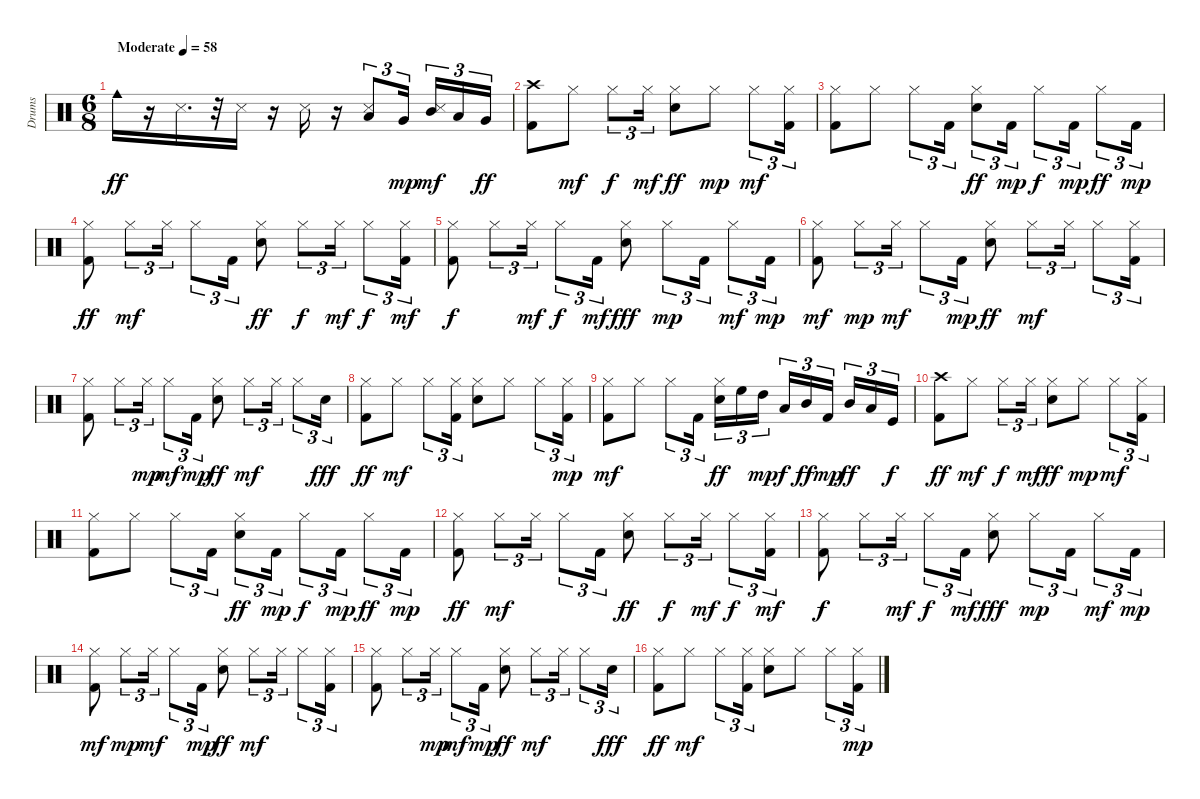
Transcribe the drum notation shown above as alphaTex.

\track ("Drums " "Drums ") {instrument percussion}
\staff {score}
\articulation defaults
\ts (6 8)
\tempo (58 "Moderate")
\clef neutral
\ks c "Cowbell medium (hit)".16{dy ff}
r.16 "Snare (side stick) 3".16{d} r.32 "Snare (side stick) 3".16 r.16 "Snare (side stick) 3".16 r.16 ("Snare (side stick) 3" "Low Floor Tom (hit)").8{tu (3 2)} "Very Low Tom (hit)".16{tu (3 2) dy mp} ("Snare (side stick) 3" "Mid Tom (hit)").16{tu (3 2) dy mf} "Low Tom (hit)".16{tu (3 2)} "Very Low Tom (hit)".16{tu (3 2) dy ff} |
("Kick (hit) 2" "Crash high (hit)").8 "Hi-Hat (closed)".8{dy mf} "Hi-Hat (closed)".8{tu (3 2) dy f} "Hi-Hat (closed)".16{tu (3 2) dy mf} ("Electric Snare (hit)" "Hi-Hat (closed)").8{dy ff} "Hi-Hat (closed)".8{dy mp} "Hi-Hat (closed)".8{tu (3 2) dy mf} ("Kick (hit) 2" "Hi-Hat (closed)").16{tu (3 2)} |
("Kick (hit) 2" "Hi-Hat (closed)").8 "Hi-Hat (closed)".8 "Hi-Hat (closed)".8{tu (3 2)} "Kick (hit) 2".16{tu (3 2)} ("Electric Snare (hit)" "Hi-Hat (closed)").8{tu (3 2) dy ff} "Kick (hit) 2".16{tu (3 2) dy mp} "Hi-Hat (closed)".8{tu (3 2) dy f} "Kick (hit) 2".16{tu (3 2) dy mp} "Hi-Hat (closed)".8{tu (3 2) dy ff} "Kick (hit) 2".16{tu (3 2) dy mp} |
("Kick (hit) 2" "Hi-Hat (closed)").8{dy ff} "Hi-Hat (closed)".8{tu (3 2) dy mf} "Hi-Hat (closed)".16{tu (3 2)} "Hi-Hat (closed)".8{tu (3 2)} "Kick (hit) 2".16{tu (3 2)} ("Electric Snare (hit)" "Hi-Hat (closed)").8{dy ff} "Hi-Hat (closed)".8{tu (3 2) dy f} "Hi-Hat (closed)".16{tu (3 2) dy mf} "Hi-Hat (closed)".8{tu (3 2) dy f} ("Kick (hit) 2" "Hi-Hat (closed)").16{tu (3 2) dy mf} |
("Kick (hit) 2" "Hi-Hat (closed)").8{dy f} "Hi-Hat (closed)".8{tu (3 2)} "Hi-Hat (closed)".16{tu (3 2) dy mf} "Hi-Hat (closed)".8{tu (3 2) dy f} "Kick (hit) 2".16{tu (3 2) dy mf} ("Electric Snare (hit)" "Hi-Hat (closed)").8{dy fff} "Hi-Hat (closed)".8{tu (3 2) dy mp} "Kick (hit) 2".16{tu (3 2)} "Hi-Hat (closed)".8{tu (3 2) dy mf} "Kick (hit) 2".16{tu (3 2) dy mp} |
("Kick (hit) 2" "Hi-Hat (closed)").8{dy mf} "Hi-Hat (closed)".8{tu (3 2) dy mp} "Hi-Hat (closed)".16{tu (3 2) dy mf} "Hi-Hat (closed)".8{tu (3 2)} "Kick (hit) 2".16{tu (3 2) dy mp} ("Electric Snare (hit)" "Hi-Hat (closed)").8{dy ff} "Hi-Hat (closed)".8{tu (3 2) dy mf} "Hi-Hat (closed)".16{tu (3 2)} "Hi-Hat (closed)".8{tu (3 2)} ("Kick (hit) 2" "Hi-Hat (closed)").16{tu (3 2)} |
("Kick (hit) 2" "Hi-Hat (closed)").8 "Hi-Hat (closed)".8{tu (3 2)} "Hi-Hat (closed)".16{tu (3 2) dy mp} "Hi-Hat (closed)".8{tu (3 2) dy mf} "Kick (hit) 2".16{tu (3 2) dy mp} ("Electric Snare (hit)" "Hi-Hat (closed)").8{dy ff} "Hi-Hat (closed)".8{tu (3 2) dy mf} "Hi-Hat (closed)".16{tu (3 2)} "Hi-Hat (closed)".8{tu (3 2)} "Electric Snare (hit)".16{tu (3 2) dy fff} |
("Kick (hit) 2" "Hi-Hat (closed)").8{dy ff} "Hi-Hat (closed)".8{dy mf} "Hi-Hat (closed)".8{tu (3 2)} ("Kick (hit) 2" "Hi-Hat (closed)").16{tu (3 2)} ("Electric Snare (hit)" "Hi-Hat (closed)").8 "Hi-Hat (closed)".8 "Hi-Hat (closed)".8{tu (3 2)} ("Kick (hit) 2" "Hi-Hat (closed)").16{tu (3 2) dy mp} |
("Kick (hit) 2" "Hi-Hat (closed)").8{dy mf} "Hi-Hat (closed)".8 "Hi-Hat (closed)".8{tu (3 2)} "Kick (hit) 2".16{tu (3 2)} ("Electric Snare (hit)" "Hi-Hat (closed)").16{tu (3 2) dy ff} "High Floor Tom (hit)".16{tu (3 2)} "High Tom (hit)".16{tu (3 2) dy mp} "Low Tom (hit)".16{tu (3 2) dy f} "Mid Tom (hit)".16{tu (3 2) dy ff} "Kick (hit) 2".16{tu (3 2) dy mp} "Mid Tom (hit)".16{tu (3 2) dy ff} "Low Tom (hit)".16{tu (3 2)} "Kick (hit)".16{tu (3 2) dy f} |
("Kick (hit) 2" "Crash high (hit)").8{dy ff} "Hi-Hat (closed)".8{dy mf} "Hi-Hat (closed)".8{tu (3 2) dy f} "Hi-Hat (closed)".16{tu (3 2) dy mf} ("Electric Snare (hit)" "Hi-Hat (closed)").8{dy ff} "Hi-Hat (closed)".8{dy mp} "Hi-Hat (closed)".8{tu (3 2) dy mf} ("Kick (hit) 2" "Hi-Hat (closed)").16{tu (3 2)} |
("Kick (hit) 2" "Hi-Hat (closed)").8 "Hi-Hat (closed)".8 "Hi-Hat (closed)".8{tu (3 2)} "Kick (hit) 2".16{tu (3 2)} ("Electric Snare (hit)" "Hi-Hat (closed)").8{tu (3 2) dy ff} "Kick (hit) 2".16{tu (3 2) dy mp} "Hi-Hat (closed)".8{tu (3 2) dy f} "Kick (hit) 2".16{tu (3 2) dy mp} "Hi-Hat (closed)".8{tu (3 2) dy ff} "Kick (hit) 2".16{tu (3 2) dy mp} |
("Kick (hit) 2" "Hi-Hat (closed)").8{dy ff} "Hi-Hat (closed)".8{tu (3 2) dy mf} "Hi-Hat (closed)".16{tu (3 2)} "Hi-Hat (closed)".8{tu (3 2)} "Kick (hit) 2".16{tu (3 2)} ("Electric Snare (hit)" "Hi-Hat (closed)").8{dy ff} "Hi-Hat (closed)".8{tu (3 2) dy f} "Hi-Hat (closed)".16{tu (3 2) dy mf} "Hi-Hat (closed)".8{tu (3 2) dy f} ("Kick (hit) 2" "Hi-Hat (closed)").16{tu (3 2) dy mf} |
("Kick (hit) 2" "Hi-Hat (closed)").8{dy f} "Hi-Hat (closed)".8{tu (3 2)} "Hi-Hat (closed)".16{tu (3 2) dy mf} "Hi-Hat (closed)".8{tu (3 2) dy f} "Kick (hit) 2".16{tu (3 2) dy mf} ("Electric Snare (hit)" "Hi-Hat (closed)").8{dy fff} "Hi-Hat (closed)".8{tu (3 2) dy mp} "Kick (hit) 2".16{tu (3 2)} "Hi-Hat (closed)".8{tu (3 2) dy mf} "Kick (hit) 2".16{tu (3 2) dy mp} |
("Kick (hit) 2" "Hi-Hat (closed)").8{dy mf} "Hi-Hat (closed)".8{tu (3 2) dy mp} "Hi-Hat (closed)".16{tu (3 2) dy mf} "Hi-Hat (closed)".8{tu (3 2)} "Kick (hit) 2".16{tu (3 2) dy mp} ("Electric Snare (hit)" "Hi-Hat (closed)").8{dy ff} "Hi-Hat (closed)".8{tu (3 2) dy mf} "Hi-Hat (closed)".16{tu (3 2)} "Hi-Hat (closed)".8{tu (3 2)} ("Kick (hit) 2" "Hi-Hat (closed)").16{tu (3 2)} |
("Kick (hit) 2" "Hi-Hat (closed)").8 "Hi-Hat (closed)".8{tu (3 2)} "Hi-Hat (closed)".16{tu (3 2) dy mp} "Hi-Hat (closed)".8{tu (3 2) dy mf} "Kick (hit) 2".16{tu (3 2) dy mp} ("Electric Snare (hit)" "Hi-Hat (closed)").8{dy ff} "Hi-Hat (closed)".8{tu (3 2) dy mf} "Hi-Hat (closed)".16{tu (3 2)} "Hi-Hat (closed)".8{tu (3 2)} "Electric Snare (hit)".16{tu (3 2) dy fff} |
("Kick (hit) 2" "Hi-Hat (closed)").8{dy ff} "Hi-Hat (closed)".8{dy mf} "Hi-Hat (closed)".8{tu (3 2)} ("Kick (hit) 2" "Hi-Hat (closed)").16{tu (3 2)} ("Electric Snare (hit)" "Hi-Hat (closed)").8 "Hi-Hat (closed)".8 "Hi-Hat (closed)".8{tu (3 2)} ("Kick (hit) 2" "Hi-Hat (closed)").16{tu (3 2) dy mp}
